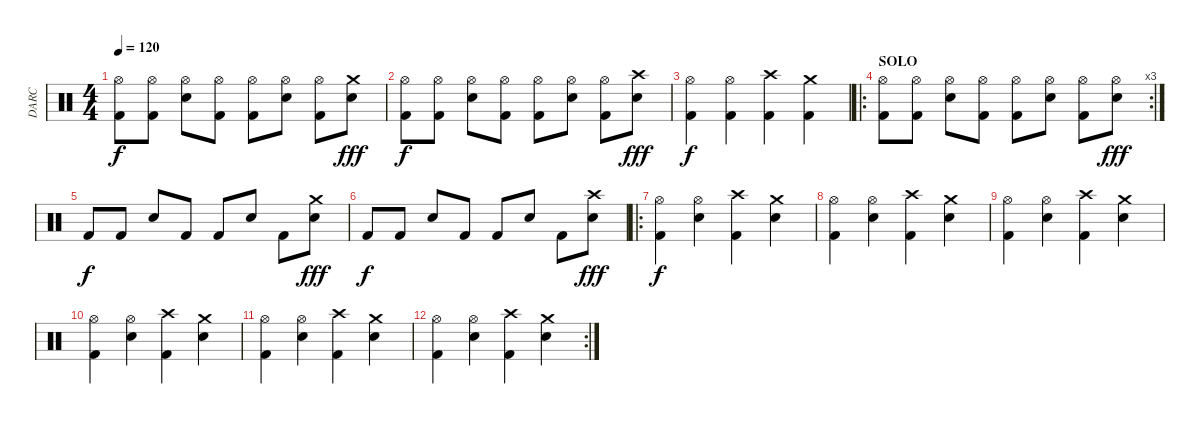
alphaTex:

\track ("DARC" "DARC") {instrument percussion}
\staff {score}
\articulation defaults
\ts (4 4)
\tempo 120
\clef neutral
\ks c
("Hi-Hat (open)" "Kick (hit) 2").8{dy f} ("Hi-Hat (open)" "Kick (hit) 2").8 ("Hi-Hat (open)" "Snare (hit) 2").8 ("Hi-Hat (open)" "Kick (hit) 2").8 ("Hi-Hat (open)" "Kick (hit) 2").8 ("Hi-Hat (open)" "Snare (hit) 2").8 ("Hi-Hat (open)" "Kick (hit) 2").8 ("Crash medium (hit)" "Snare (hit) 2").8{dy fff} |
("Hi-Hat (open)" "Kick (hit) 2").8{dy f} ("Hi-Hat (open)" "Kick (hit) 2").8 ("Hi-Hat (open)" "Snare (hit) 2").8 ("Hi-Hat (open)" "Kick (hit) 2").8 ("Hi-Hat (open)" "Kick (hit) 2").8 ("Hi-Hat (open)" "Snare (hit) 2").8 ("Hi-Hat (open)" "Kick (hit) 2").8 ("Crash high (hit)" "Snare (hit) 2").8{dy fff} |
("Kick (hit) 2" "Hi-Hat (open)").4{dy f} ("Kick (hit) 2" "Hi-Hat (open)").4 ("Kick (hit) 2" "Crash high (hit)").4 ("Kick (hit) 2" "Crash medium (hit)").4 |
\ro
\rc 3
\section ("" "SOLO")
("Hi-Hat (open)" "Kick (hit) 2").8 ("Hi-Hat (open)" "Kick (hit) 2").8 ("Hi-Hat (open)" "Snare (hit) 2").8 ("Hi-Hat (open)" "Kick (hit) 2").8 ("Hi-Hat (open)" "Kick (hit) 2").8 ("Hi-Hat (open)" "Snare (hit) 2").8 ("Hi-Hat (open)" "Kick (hit) 2").8 ("Hi-Hat (open)" "Snare (hit) 2").8{dy fff} |
"Kick (hit) 2".8{dy f} "Kick (hit) 2".8 "Snare (hit) 2".8 "Kick (hit) 2".8 "Kick (hit) 2".8 "Snare (hit) 2".8 "Kick (hit) 2".8 ("Crash medium (hit)" "Snare (hit) 2").8{dy fff} |
"Kick (hit) 2".8{dy f} "Kick (hit) 2".8 "Snare (hit) 2".8 "Kick (hit) 2".8 "Kick (hit) 2".8 "Snare (hit) 2".8 "Kick (hit) 2".8 ("Crash high (hit)" "Snare (hit) 2").8{dy fff} |
\ro
("Kick (hit) 2" "Hi-Hat (open)").4{dy f} ("Electric Snare (hit)" "Hi-Hat (open)").4 ("Kick (hit) 2" "Crash high (hit)").4 ("Electric Snare (hit)" "Crash medium (hit)").4 |
("Kick (hit) 2" "Hi-Hat (open)").4 ("Electric Snare (hit)" "Hi-Hat (open)").4 ("Kick (hit) 2" "Crash high (hit)").4 ("Electric Snare (hit)" "Crash medium (hit)").4 |
("Kick (hit) 2" "Hi-Hat (open)").4 ("Electric Snare (hit)" "Hi-Hat (open)").4 ("Kick (hit) 2" "Crash high (hit)").4 ("Electric Snare (hit)" "Crash medium (hit)").4 |
("Kick (hit) 2" "Hi-Hat (open)").4 ("Electric Snare (hit)" "Hi-Hat (open)").4 ("Kick (hit) 2" "Crash high (hit)").4 ("Electric Snare (hit)" "Crash medium (hit)").4 |
("Kick (hit) 2" "Hi-Hat (open)").4 ("Electric Snare (hit)" "Hi-Hat (open)").4 ("Kick (hit) 2" "Crash high (hit)").4 ("Electric Snare (hit)" "Crash medium (hit)").4 |
\rc 2
("Kick (hit) 2" "Hi-Hat (open)").4 ("Electric Snare (hit)" "Hi-Hat (open)").4 ("Kick (hit) 2" "Crash high (hit)").4 ("Electric Snare (hit)" "Crash medium (hit)").4
